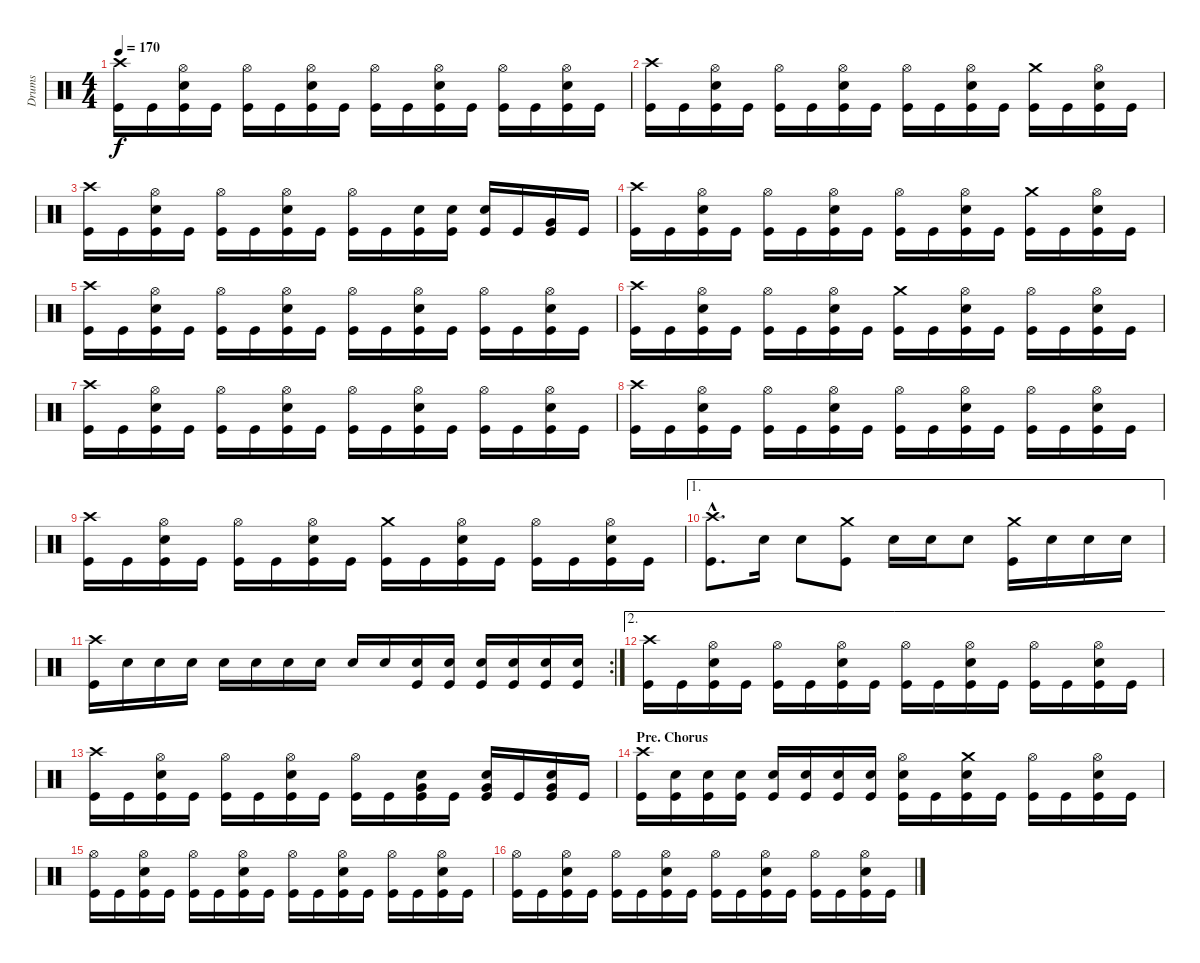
\track ("Drums" "Drums") {instrument percussion}
\staff {score}
\articulation defaults
\ts (4 4)
\tempo 170
\clef neutral
\ks c
("Crash high (hit)" "Kick (hit)").16{dy f} "Kick (hit)".16 ("Hi-Hat (open)" "Electric Snare (hit)" "Kick (hit)").16 "Kick (hit)".16 ("Hi-Hat (open)" "Kick (hit)").16 "Kick (hit)".16 ("Hi-Hat (open)" "Electric Snare (hit)" "Kick (hit)").16 "Kick (hit)".16 ("Hi-Hat (open)" "Kick (hit)").16 "Kick (hit)".16 ("Hi-Hat (open)" "Electric Snare (hit)" "Kick (hit)").16 "Kick (hit)".16 ("Hi-Hat (open)" "Kick (hit)").16 "Kick (hit)".16 ("Hi-Hat (open)" "Electric Snare (hit)" "Kick (hit)").16 "Kick (hit)".16 |
("Crash high (hit)" "Kick (hit)").16 "Kick (hit)".16 ("Hi-Hat (open)" "Electric Snare (hit)" "Kick (hit)").16 "Kick (hit)".16 ("Hi-Hat (open)" "Kick (hit)").16 "Kick (hit)".16 ("Hi-Hat (open)" "Electric Snare (hit)" "Kick (hit)").16 "Kick (hit)".16 ("Hi-Hat (open)" "Kick (hit)").16 "Kick (hit)".16 ("Hi-Hat (open)" "Electric Snare (hit)" "Kick (hit)").16 "Kick (hit)".16 ("Crash medium (hit)" "Kick (hit)").16 "Kick (hit)".16 ("Hi-Hat (open)" "Electric Snare (hit)" "Kick (hit)").16 "Kick (hit)".16 |
("Crash high (hit)" "Kick (hit)").16 "Kick (hit)".16 ("Hi-Hat (open)" "Electric Snare (hit)" "Kick (hit)").16 "Kick (hit)".16 ("Hi-Hat (open)" "Kick (hit)").16 "Kick (hit)".16 ("Hi-Hat (open)" "Electric Snare (hit)" "Kick (hit)").16 "Kick (hit)".16 ("Hi-Hat (open)" "Kick (hit)").16 "Kick (hit)".16 ("Electric Snare (hit)" "Kick (hit)").16 ("Electric Snare (hit)" "Kick (hit)").16 ("Electric Snare (hit)" "Kick (hit)").16 "Kick (hit)".16 ("Very Low Tom (hit)" "Kick (hit)").16 "Kick (hit)".16 |
("Crash high (hit)" "Kick (hit)").16 "Kick (hit)".16 ("Hi-Hat (open)" "Electric Snare (hit)" "Kick (hit)").16 "Kick (hit)".16 ("Hi-Hat (open)" "Kick (hit)").16 "Kick (hit)".16 ("Hi-Hat (open)" "Electric Snare (hit)" "Kick (hit)").16 "Kick (hit)".16 ("Hi-Hat (open)" "Kick (hit)").16 "Kick (hit)".16 ("Hi-Hat (open)" "Electric Snare (hit)" "Kick (hit)").16 "Kick (hit)".16 ("Crash medium (hit)" "Kick (hit)").16 "Kick (hit)".16 ("Hi-Hat (open)" "Electric Snare (hit)" "Kick (hit)").16 "Kick (hit)".16 |
("Crash high (hit)" "Kick (hit)").16 "Kick (hit)".16 ("Hi-Hat (open)" "Electric Snare (hit)" "Kick (hit)").16 "Kick (hit)".16 ("Hi-Hat (open)" "Kick (hit)").16 "Kick (hit)".16 ("Hi-Hat (open)" "Electric Snare (hit)" "Kick (hit)").16 "Kick (hit)".16 ("Hi-Hat (open)" "Kick (hit)").16 "Kick (hit)".16 ("Hi-Hat (open)" "Electric Snare (hit)" "Kick (hit)").16 "Kick (hit)".16 ("Hi-Hat (open)" "Kick (hit)").16 "Kick (hit)".16 ("Hi-Hat (open)" "Electric Snare (hit)" "Kick (hit)").16 "Kick (hit)".16 |
("Crash high (hit)" "Kick (hit)").16 "Kick (hit)".16 ("Hi-Hat (open)" "Electric Snare (hit)" "Kick (hit)").16 "Kick (hit)".16 ("Hi-Hat (open)" "Kick (hit)").16 "Kick (hit)".16 ("Hi-Hat (open)" "Electric Snare (hit)" "Kick (hit)").16 "Kick (hit)".16 ("Crash medium (hit)" "Kick (hit)").16 "Kick (hit)".16 ("Hi-Hat (open)" "Electric Snare (hit)" "Kick (hit)").16 "Kick (hit)".16 ("Hi-Hat (open)" "Kick (hit)").16 "Kick (hit)".16 ("Hi-Hat (open)" "Electric Snare (hit)" "Kick (hit)").16 "Kick (hit)".16 |
("Crash high (hit)" "Kick (hit)").16 "Kick (hit)".16 ("Hi-Hat (open)" "Electric Snare (hit)" "Kick (hit)").16 "Kick (hit)".16 ("Hi-Hat (open)" "Kick (hit)").16 "Kick (hit)".16 ("Hi-Hat (open)" "Electric Snare (hit)" "Kick (hit)").16 "Kick (hit)".16 ("Hi-Hat (open)" "Kick (hit)").16 "Kick (hit)".16 ("Hi-Hat (open)" "Electric Snare (hit)" "Kick (hit)").16 "Kick (hit)".16 ("Hi-Hat (open)" "Kick (hit)").16 "Kick (hit)".16 ("Hi-Hat (open)" "Electric Snare (hit)" "Kick (hit)").16 "Kick (hit)".16 |
("Crash high (hit)" "Kick (hit)").16 "Kick (hit)".16 ("Hi-Hat (open)" "Electric Snare (hit)" "Kick (hit)").16 "Kick (hit)".16 ("Hi-Hat (open)" "Kick (hit)").16 "Kick (hit)".16 ("Hi-Hat (open)" "Electric Snare (hit)" "Kick (hit)").16 "Kick (hit)".16 ("Hi-Hat (open)" "Kick (hit)").16 "Kick (hit)".16 ("Hi-Hat (open)" "Electric Snare (hit)" "Kick (hit)").16 "Kick (hit)".16 ("Hi-Hat (open)" "Kick (hit)").16 "Kick (hit)".16 ("Hi-Hat (open)" "Electric Snare (hit)" "Kick (hit)").16 "Kick (hit)".16 |
("Crash high (hit)" "Kick (hit)").16 "Kick (hit)".16 ("Hi-Hat (open)" "Electric Snare (hit)" "Kick (hit)").16 "Kick (hit)".16 ("Hi-Hat (open)" "Kick (hit)").16 "Kick (hit)".16 ("Hi-Hat (open)" "Electric Snare (hit)" "Kick (hit)").16 "Kick (hit)".16 ("Crash medium (hit)" "Kick (hit)").16 "Kick (hit)".16 ("Hi-Hat (open)" "Electric Snare (hit)" "Kick (hit)").16 "Kick (hit)".16 ("Hi-Hat (open)" "Kick (hit)").16 "Kick (hit)".16 ("Hi-Hat (open)" "Electric Snare (hit)" "Kick (hit)").16 "Kick (hit)".16 |
\ae 1
("Crash high (hit)"{hac} "Kick (hit)"{hac}).8{d} "Electric Snare (hit)".16 "Electric Snare (hit)".8 ("Crash medium (hit)" "Kick (hit)").8 "Electric Snare (hit)".16 "Electric Snare (hit)".16 "Electric Snare (hit)".8 ("Crash medium (hit)" "Kick (hit)").16 "Electric Snare (hit)".16 "Electric Snare (hit)".16 "Electric Snare (hit)".16 |
\rc 2
("Crash high (hit)" "Kick (hit)").16 "Electric Snare (hit)".16 "Electric Snare (hit)".16 "Electric Snare (hit)".16 "Electric Snare (hit)".16 "Electric Snare (hit)".16 "Electric Snare (hit)".16 "Electric Snare (hit)".16 "Electric Snare (hit)".16 "Electric Snare (hit)".16 ("Electric Snare (hit)" "Kick (hit)").16 ("Electric Snare (hit)" "Kick (hit)").16 ("Electric Snare (hit)" "Kick (hit)").16 ("Electric Snare (hit)" "Kick (hit)").16 ("Electric Snare (hit)" "Kick (hit)").16 ("Electric Snare (hit)" "Kick (hit)").16 |
\ae 2
("Crash high (hit)" "Kick (hit)").16 "Kick (hit)".16 ("Hi-Hat (open)" "Electric Snare (hit)" "Kick (hit)").16 "Kick (hit)".16 ("Hi-Hat (open)" "Kick (hit)").16 "Kick (hit)".16 ("Hi-Hat (open)" "Electric Snare (hit)" "Kick (hit)").16 "Kick (hit)".16 ("Hi-Hat (open)" "Kick (hit)").16 "Kick (hit)".16 ("Hi-Hat (open)" "Electric Snare (hit)" "Kick (hit)").16 "Kick (hit)".16 ("Hi-Hat (open)" "Kick (hit)").16 "Kick (hit)".16 ("Hi-Hat (open)" "Electric Snare (hit)" "Kick (hit)").16 "Kick (hit)".16 |
("Crash high (hit)" "Kick (hit)").16 "Kick (hit)".16 ("Hi-Hat (open)" "Electric Snare (hit)" "Kick (hit)").16 "Kick (hit)".16 ("Hi-Hat (open)" "Kick (hit)").16 "Kick (hit)".16 ("Hi-Hat (open)" "Electric Snare (hit)" "Kick (hit)").16 "Kick (hit)".16 ("Hi-Hat (open)" "Kick (hit)").16 "Kick (hit)".16 ("Very Low Tom (hit)" "Electric Snare (hit)" "Kick (hit)").16 "Kick (hit)".16 ("Very Low Tom (hit)" "Electric Snare (hit)" "Kick (hit)").16 "Kick (hit)".16 ("Very Low Tom (hit)" "Electric Snare (hit)" "Kick (hit)").16 "Kick (hit)".16 |
\section ("" "Pre. Chorus")
("Crash high (hit)" "Kick (hit)").16 ("Electric Snare (hit)" "Kick (hit)").16 ("Electric Snare (hit)" "Kick (hit)").16 ("Electric Snare (hit)" "Kick (hit)").16 ("Electric Snare (hit)" "Kick (hit)").16 ("Electric Snare (hit)" "Kick (hit)").16 ("Electric Snare (hit)" "Kick (hit)").16 ("Electric Snare (hit)" "Kick (hit)").16 ("Hi-Hat (open)" "Electric Snare (hit)" "Kick (hit)").16 "Kick (hit)".16 ("Crash medium (hit)" "Electric Snare (hit)" "Kick (hit)").16 "Kick (hit)".16 ("Hi-Hat (open)" "Kick (hit)").16 "Kick (hit)".16 ("Hi-Hat (open)" "Electric Snare (hit)" "Kick (hit)").16 "Kick (hit)".16 |
("Hi-Hat (open)" "Kick (hit)").16 "Kick (hit)".16 ("Hi-Hat (open)" "Electric Snare (hit)" "Kick (hit)").16 "Kick (hit)".16 ("Hi-Hat (open)" "Kick (hit)").16 "Kick (hit)".16 ("Hi-Hat (open)" "Electric Snare (hit)" "Kick (hit)").16 "Kick (hit)".16 ("Hi-Hat (open)" "Kick (hit)").16 "Kick (hit)".16 ("Hi-Hat (open)" "Electric Snare (hit)" "Kick (hit)").16 "Kick (hit)".16 ("Hi-Hat (open)" "Kick (hit)").16 "Kick (hit)".16 ("Hi-Hat (open)" "Electric Snare (hit)" "Kick (hit)").16 "Kick (hit)".16 |
("Hi-Hat (open)" "Kick (hit)").16 "Kick (hit)".16 ("Hi-Hat (open)" "Electric Snare (hit)" "Kick (hit)").16 "Kick (hit)".16 ("Hi-Hat (open)" "Kick (hit)").16 "Kick (hit)".16 ("Hi-Hat (open)" "Electric Snare (hit)" "Kick (hit)").16 "Kick (hit)".16 ("Hi-Hat (open)" "Kick (hit)").16 "Kick (hit)".16 ("Hi-Hat (open)" "Electric Snare (hit)" "Kick (hit)").16 "Kick (hit)".16 ("Hi-Hat (open)" "Kick (hit)").16 "Kick (hit)".16 ("Hi-Hat (open)" "Electric Snare (hit)" "Kick (hit)").16 "Kick (hit)".16
